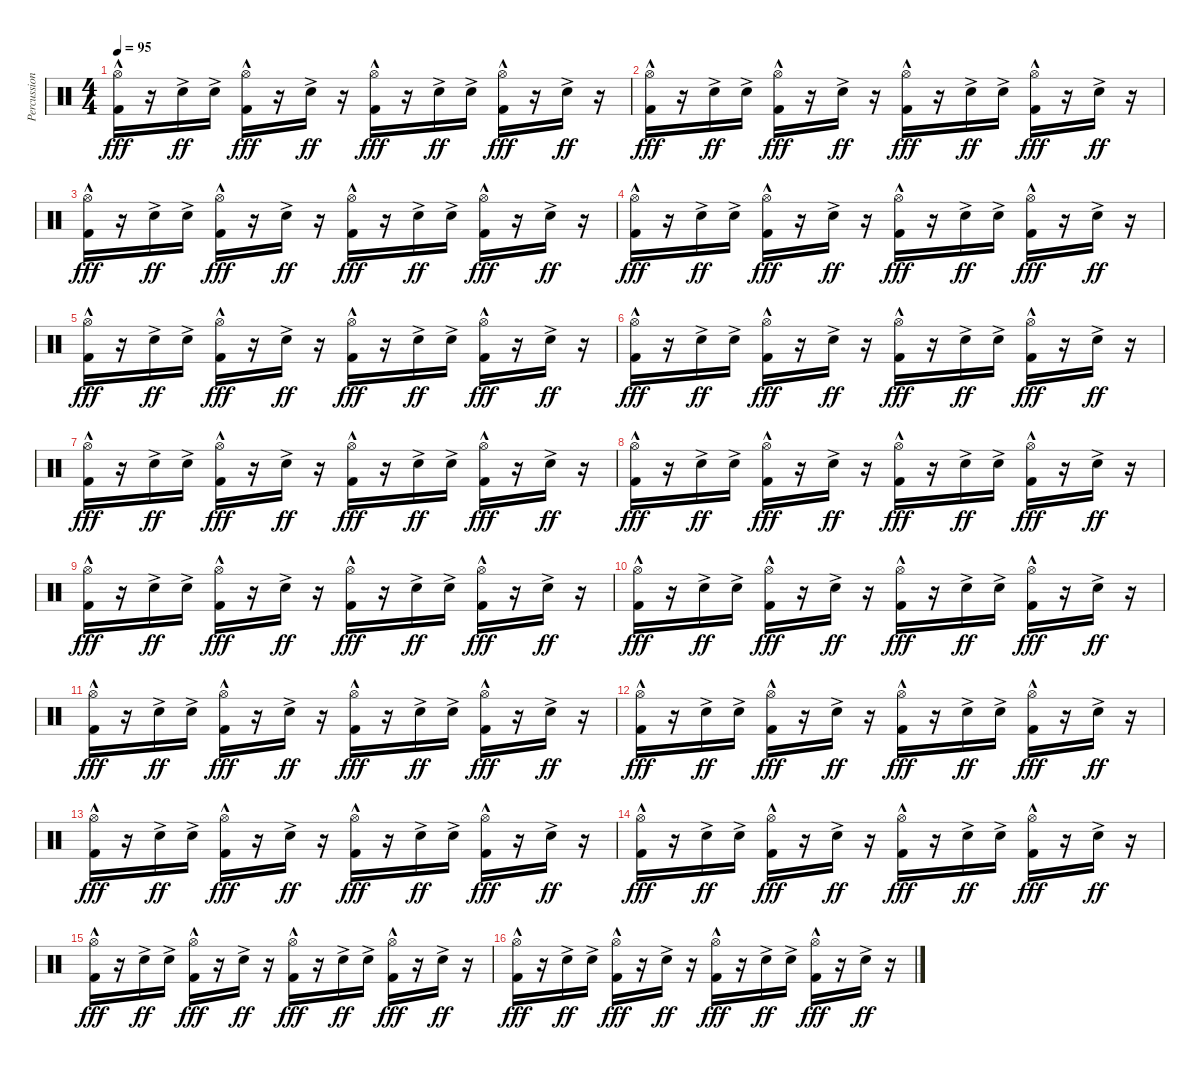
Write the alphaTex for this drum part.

\track ("Percussion" "Percussion") {instrument percussion}
\staff {score}
\articulation defaults
\ts (4 4)
\tempo 95
\clef neutral
\ks c
("Hi-Hat (open)"{hac} "Kick (hit) 2"{hac}).16{dy fff} r.16 "Snare (hit) 2"{ac}.16{dy ff} "Snare (hit) 2"{ac}.16 ("Hi-Hat (open)"{hac} "Kick (hit) 2"{hac}).16{dy fff} r.16 "Snare (hit) 2"{ac}.16{dy ff} r.16 ("Hi-Hat (open)"{hac} "Kick (hit) 2"{hac}).16{dy fff} r.16 "Snare (hit) 2"{ac}.16{dy ff} "Snare (hit) 2"{ac}.16 ("Hi-Hat (open)"{hac} "Kick (hit) 2"{hac}).16{dy fff} r.16 "Snare (hit) 2"{ac}.16{dy ff} r.16 |
("Hi-Hat (open)"{hac} "Kick (hit) 2"{hac}).16{dy fff} r.16 "Snare (hit) 2"{ac}.16{dy ff} "Snare (hit) 2"{ac}.16 ("Hi-Hat (open)"{hac} "Kick (hit) 2"{hac}).16{dy fff} r.16 "Snare (hit) 2"{ac}.16{dy ff} r.16 ("Hi-Hat (open)"{hac} "Kick (hit) 2"{hac}).16{dy fff} r.16 "Snare (hit) 2"{ac}.16{dy ff} "Snare (hit) 2"{ac}.16 ("Hi-Hat (open)"{hac} "Kick (hit) 2"{hac}).16{dy fff} r.16 "Snare (hit) 2"{ac}.16{dy ff} r.16 |
("Hi-Hat (open)"{hac} "Kick (hit) 2"{hac}).16{dy fff} r.16 "Snare (hit) 2"{ac}.16{dy ff} "Snare (hit) 2"{ac}.16 ("Hi-Hat (open)"{hac} "Kick (hit) 2"{hac}).16{dy fff} r.16 "Snare (hit) 2"{ac}.16{dy ff} r.16 ("Hi-Hat (open)"{hac} "Kick (hit) 2"{hac}).16{dy fff} r.16 "Snare (hit) 2"{ac}.16{dy ff} "Snare (hit) 2"{ac}.16 ("Hi-Hat (open)"{hac} "Kick (hit) 2"{hac}).16{dy fff} r.16 "Snare (hit) 2"{ac}.16{dy ff} r.16 |
("Hi-Hat (open)"{hac} "Kick (hit) 2"{hac}).16{dy fff} r.16 "Snare (hit) 2"{ac}.16{dy ff} "Snare (hit) 2"{ac}.16 ("Hi-Hat (open)"{hac} "Kick (hit) 2"{hac}).16{dy fff} r.16 "Snare (hit) 2"{ac}.16{dy ff} r.16 ("Hi-Hat (open)"{hac} "Kick (hit) 2"{hac}).16{dy fff} r.16 "Snare (hit) 2"{ac}.16{dy ff} "Snare (hit) 2"{ac}.16 ("Hi-Hat (open)"{hac} "Kick (hit) 2"{hac}).16{dy fff} r.16 "Snare (hit) 2"{ac}.16{dy ff} r.16 |
("Hi-Hat (open)"{hac} "Kick (hit) 2"{hac}).16{dy fff} r.16 "Snare (hit) 2"{ac}.16{dy ff} "Snare (hit) 2"{ac}.16 ("Hi-Hat (open)"{hac} "Kick (hit) 2"{hac}).16{dy fff} r.16 "Snare (hit) 2"{ac}.16{dy ff} r.16 ("Hi-Hat (open)"{hac} "Kick (hit) 2"{hac}).16{dy fff} r.16 "Snare (hit) 2"{ac}.16{dy ff} "Snare (hit) 2"{ac}.16 ("Hi-Hat (open)"{hac} "Kick (hit) 2"{hac}).16{dy fff} r.16 "Snare (hit) 2"{ac}.16{dy ff} r.16 |
("Hi-Hat (open)"{hac} "Kick (hit) 2"{hac}).16{dy fff} r.16 "Snare (hit) 2"{ac}.16{dy ff} "Snare (hit) 2"{ac}.16 ("Hi-Hat (open)"{hac} "Kick (hit) 2"{hac}).16{dy fff} r.16 "Snare (hit) 2"{ac}.16{dy ff} r.16 ("Hi-Hat (open)"{hac} "Kick (hit) 2"{hac}).16{dy fff} r.16 "Snare (hit) 2"{ac}.16{dy ff} "Snare (hit) 2"{ac}.16 ("Hi-Hat (open)"{hac} "Kick (hit) 2"{hac}).16{dy fff} r.16 "Snare (hit) 2"{ac}.16{dy ff} r.16 |
("Hi-Hat (open)"{hac} "Kick (hit) 2"{hac}).16{dy fff} r.16 "Snare (hit) 2"{ac}.16{dy ff} "Snare (hit) 2"{ac}.16 ("Hi-Hat (open)"{hac} "Kick (hit) 2"{hac}).16{dy fff} r.16 "Snare (hit) 2"{ac}.16{dy ff} r.16 ("Hi-Hat (open)"{hac} "Kick (hit) 2"{hac}).16{dy fff} r.16 "Snare (hit) 2"{ac}.16{dy ff} "Snare (hit) 2"{ac}.16 ("Hi-Hat (open)"{hac} "Kick (hit) 2"{hac}).16{dy fff} r.16 "Snare (hit) 2"{ac}.16{dy ff} r.16 |
("Hi-Hat (open)"{hac} "Kick (hit) 2"{hac}).16{dy fff} r.16 "Snare (hit) 2"{ac}.16{dy ff} "Snare (hit) 2"{ac}.16 ("Hi-Hat (open)"{hac} "Kick (hit) 2"{hac}).16{dy fff} r.16 "Snare (hit) 2"{ac}.16{dy ff} r.16 ("Hi-Hat (open)"{hac} "Kick (hit) 2"{hac}).16{dy fff} r.16 "Snare (hit) 2"{ac}.16{dy ff} "Snare (hit) 2"{ac}.16 ("Hi-Hat (open)"{hac} "Kick (hit) 2"{hac}).16{dy fff} r.16 "Snare (hit) 2"{ac}.16{dy ff} r.16 |
("Hi-Hat (open)"{hac} "Kick (hit) 2"{hac}).16{dy fff} r.16 "Snare (hit) 2"{ac}.16{dy ff} "Snare (hit) 2"{ac}.16 ("Hi-Hat (open)"{hac} "Kick (hit) 2"{hac}).16{dy fff} r.16 "Snare (hit) 2"{ac}.16{dy ff} r.16 ("Hi-Hat (open)"{hac} "Kick (hit) 2"{hac}).16{dy fff} r.16 "Snare (hit) 2"{ac}.16{dy ff} "Snare (hit) 2"{ac}.16 ("Hi-Hat (open)"{hac} "Kick (hit) 2"{hac}).16{dy fff} r.16 "Snare (hit) 2"{ac}.16{dy ff} r.16 |
("Hi-Hat (open)"{hac} "Kick (hit) 2"{hac}).16{dy fff} r.16 "Snare (hit) 2"{ac}.16{dy ff} "Snare (hit) 2"{ac}.16 ("Hi-Hat (open)"{hac} "Kick (hit) 2"{hac}).16{dy fff} r.16 "Snare (hit) 2"{ac}.16{dy ff} r.16 ("Hi-Hat (open)"{hac} "Kick (hit) 2"{hac}).16{dy fff} r.16 "Snare (hit) 2"{ac}.16{dy ff} "Snare (hit) 2"{ac}.16 ("Hi-Hat (open)"{hac} "Kick (hit) 2"{hac}).16{dy fff} r.16 "Snare (hit) 2"{ac}.16{dy ff} r.16 |
("Hi-Hat (open)"{hac} "Kick (hit) 2"{hac}).16{dy fff} r.16 "Snare (hit) 2"{ac}.16{dy ff} "Snare (hit) 2"{ac}.16 ("Hi-Hat (open)"{hac} "Kick (hit) 2"{hac}).16{dy fff} r.16 "Snare (hit) 2"{ac}.16{dy ff} r.16 ("Hi-Hat (open)"{hac} "Kick (hit) 2"{hac}).16{dy fff} r.16 "Snare (hit) 2"{ac}.16{dy ff} "Snare (hit) 2"{ac}.16 ("Hi-Hat (open)"{hac} "Kick (hit) 2"{hac}).16{dy fff} r.16 "Snare (hit) 2"{ac}.16{dy ff} r.16 |
("Hi-Hat (open)"{hac} "Kick (hit) 2"{hac}).16{dy fff} r.16 "Snare (hit) 2"{ac}.16{dy ff} "Snare (hit) 2"{ac}.16 ("Hi-Hat (open)"{hac} "Kick (hit) 2"{hac}).16{dy fff} r.16 "Snare (hit) 2"{ac}.16{dy ff} r.16 ("Hi-Hat (open)"{hac} "Kick (hit) 2"{hac}).16{dy fff} r.16 "Snare (hit) 2"{ac}.16{dy ff} "Snare (hit) 2"{ac}.16 ("Hi-Hat (open)"{hac} "Kick (hit) 2"{hac}).16{dy fff} r.16 "Snare (hit) 2"{ac}.16{dy ff} r.16 |
("Hi-Hat (open)"{hac} "Kick (hit) 2"{hac}).16{dy fff} r.16 "Snare (hit) 2"{ac}.16{dy ff} "Snare (hit) 2"{ac}.16 ("Hi-Hat (open)"{hac} "Kick (hit) 2"{hac}).16{dy fff} r.16 "Snare (hit) 2"{ac}.16{dy ff} r.16 ("Hi-Hat (open)"{hac} "Kick (hit) 2"{hac}).16{dy fff} r.16 "Snare (hit) 2"{ac}.16{dy ff} "Snare (hit) 2"{ac}.16 ("Hi-Hat (open)"{hac} "Kick (hit) 2"{hac}).16{dy fff} r.16 "Snare (hit) 2"{ac}.16{dy ff} r.16 |
("Hi-Hat (open)"{hac} "Kick (hit) 2"{hac}).16{dy fff} r.16 "Snare (hit) 2"{ac}.16{dy ff} "Snare (hit) 2"{ac}.16 ("Hi-Hat (open)"{hac} "Kick (hit) 2"{hac}).16{dy fff} r.16 "Snare (hit) 2"{ac}.16{dy ff} r.16 ("Hi-Hat (open)"{hac} "Kick (hit) 2"{hac}).16{dy fff} r.16 "Snare (hit) 2"{ac}.16{dy ff} "Snare (hit) 2"{ac}.16 ("Hi-Hat (open)"{hac} "Kick (hit) 2"{hac}).16{dy fff} r.16 "Snare (hit) 2"{ac}.16{dy ff} r.16 |
("Hi-Hat (open)"{hac} "Kick (hit) 2"{hac}).16{dy fff} r.16 "Snare (hit) 2"{ac}.16{dy ff} "Snare (hit) 2"{ac}.16 ("Hi-Hat (open)"{hac} "Kick (hit) 2"{hac}).16{dy fff} r.16 "Snare (hit) 2"{ac}.16{dy ff} r.16 ("Hi-Hat (open)"{hac} "Kick (hit) 2"{hac}).16{dy fff} r.16 "Snare (hit) 2"{ac}.16{dy ff} "Snare (hit) 2"{ac}.16 ("Hi-Hat (open)"{hac} "Kick (hit) 2"{hac}).16{dy fff} r.16 "Snare (hit) 2"{ac}.16{dy ff} r.16 |
("Hi-Hat (open)"{hac} "Kick (hit) 2"{hac}).16{dy fff} r.16 "Snare (hit) 2"{ac}.16{dy ff} "Snare (hit) 2"{ac}.16 ("Hi-Hat (open)"{hac} "Kick (hit) 2"{hac}).16{dy fff} r.16 "Snare (hit) 2"{ac}.16{dy ff} r.16 ("Hi-Hat (open)"{hac} "Kick (hit) 2"{hac}).16{dy fff} r.16 "Snare (hit) 2"{ac}.16{dy ff} "Snare (hit) 2"{ac}.16 ("Hi-Hat (open)"{hac} "Kick (hit) 2"{hac}).16{dy fff} r.16 "Snare (hit) 2"{ac}.16{dy ff} r.16
